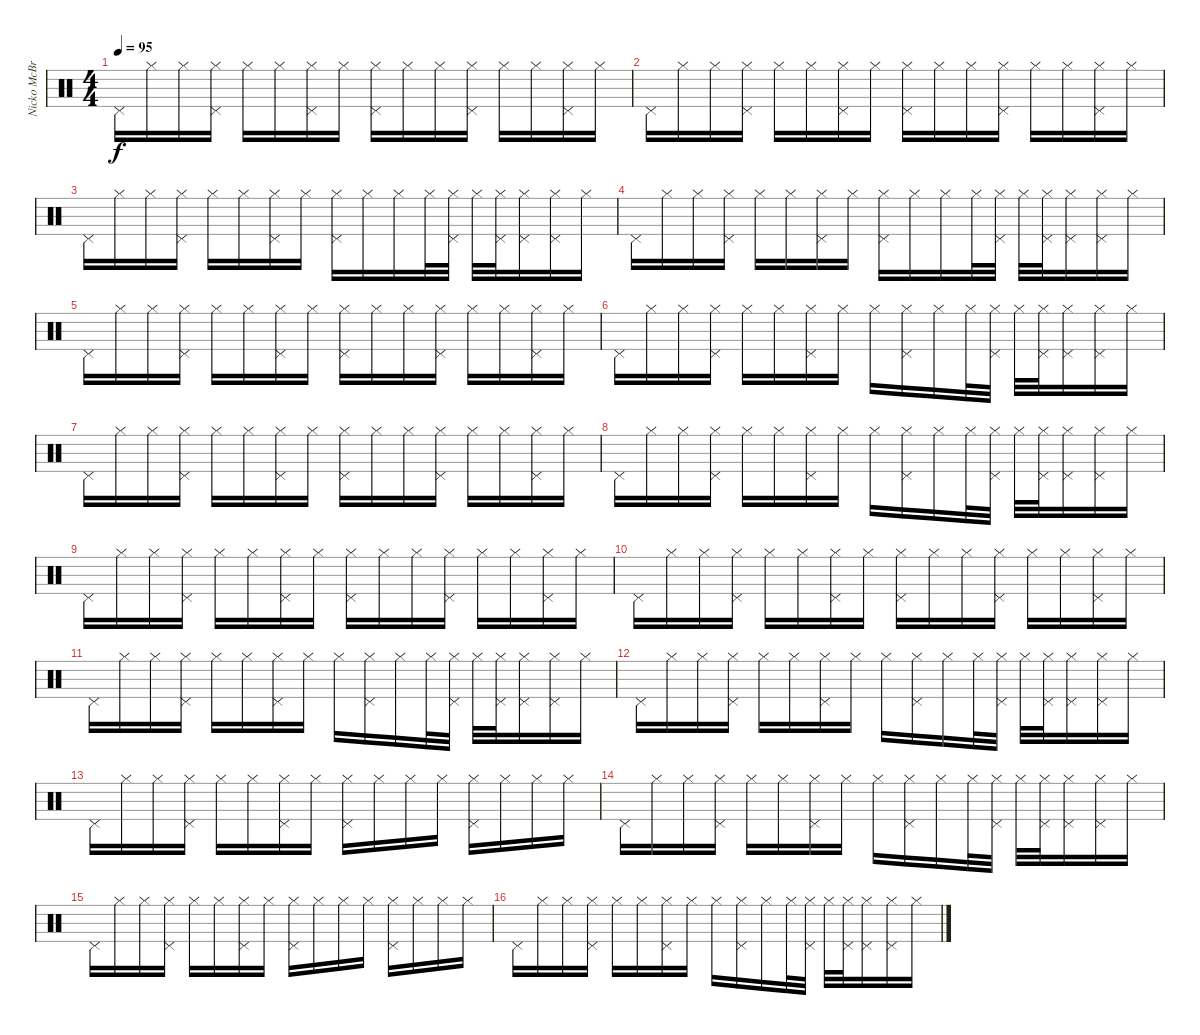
\track ("Nicko McBrain" "Nicko McBr") {instrument percussion}
\staff {score}
\articulation defaults
\ts (4 4)
\tempo 95
\clef neutral
\ks c "Pedal Hi-Hat (hit)".16{dy f} "Hi-Hat (closed)".16 "Hi-Hat (closed)".16
("Hi-Hat (closed)" "Pedal Hi-Hat (hit)").16 "Hi-Hat (closed)".16 "Hi-Hat (closed)".16 ("Hi-Hat (closed)" "Pedal Hi-Hat (hit)").16 "Hi-Hat (closed)".16 ("Hi-Hat (closed)" "Pedal Hi-Hat (hit)").16 "Hi-Hat (closed)".16 "Hi-Hat (closed)".16 ("Hi-Hat (closed)" "Pedal Hi-Hat (hit)").16 "Hi-Hat (closed)".16 "Hi-Hat (closed)".16 ("Hi-Hat (closed)" "Pedal Hi-Hat (hit)").16 "Hi-Hat (closed)".16 |
"Pedal Hi-Hat (hit)".16 "Hi-Hat (closed)".16 "Hi-Hat (closed)".16 ("Hi-Hat (closed)" "Pedal Hi-Hat (hit)").16 "Hi-Hat (closed)".16 "Hi-Hat (closed)".16 ("Hi-Hat (closed)" "Pedal Hi-Hat (hit)").16 "Hi-Hat (closed)".16 ("Hi-Hat (closed)" "Pedal Hi-Hat (hit)").16 "Hi-Hat (closed)".16 "Hi-Hat (closed)".16 ("Hi-Hat (closed)" "Pedal Hi-Hat (hit)").16 "Hi-Hat (closed)".16 "Hi-Hat (closed)".16 ("Hi-Hat (closed)" "Pedal Hi-Hat (hit)").16 "Hi-Hat (closed)".16 |
"Pedal Hi-Hat (hit)".16 "Hi-Hat (closed)".16 "Hi-Hat (closed)".16 ("Hi-Hat (closed)" "Pedal Hi-Hat (hit)").16 "Hi-Hat (closed)".16 "Hi-Hat (closed)".16 ("Hi-Hat (closed)" "Pedal Hi-Hat (hit)").16 "Hi-Hat (closed)".16 ("Hi-Hat (closed)" "Pedal Hi-Hat (hit)").16 "Hi-Hat (closed)".16 "Hi-Hat (closed)".16 "Hi-Hat (closed)".32 ("Hi-Hat (closed)" "Pedal Hi-Hat (hit)").32 "Hi-Hat (closed)".32 ("Hi-Hat (closed)" "Pedal Hi-Hat (hit)").32 ("Hi-Hat (closed)" "Pedal Hi-Hat (hit)").16 ("Hi-Hat (closed)" "Pedal Hi-Hat (hit)").16 "Hi-Hat (closed)".16 |
"Pedal Hi-Hat (hit)".16 "Hi-Hat (closed)".16 "Hi-Hat (closed)".16 ("Hi-Hat (closed)" "Pedal Hi-Hat (hit)").16 "Hi-Hat (closed)".16 "Hi-Hat (closed)".16 ("Hi-Hat (closed)" "Pedal Hi-Hat (hit)").16 "Hi-Hat (closed)".16 ("Hi-Hat (closed)" "Pedal Hi-Hat (hit)").16 "Hi-Hat (closed)".16 "Hi-Hat (closed)".16 "Hi-Hat (closed)".32 ("Hi-Hat (closed)" "Pedal Hi-Hat (hit)").32 "Hi-Hat (closed)".32 ("Hi-Hat (closed)" "Pedal Hi-Hat (hit)").32 ("Hi-Hat (closed)" "Pedal Hi-Hat (hit)").16 ("Hi-Hat (closed)" "Pedal Hi-Hat (hit)").16 "Hi-Hat (closed)".16 |
"Pedal Hi-Hat (hit)".16 "Hi-Hat (closed)".16 "Hi-Hat (closed)".16 ("Hi-Hat (closed)" "Pedal Hi-Hat (hit)").16 "Hi-Hat (closed)".16 "Hi-Hat (closed)".16 ("Hi-Hat (closed)" "Pedal Hi-Hat (hit)").16 "Hi-Hat (closed)".16 ("Hi-Hat (closed)" "Pedal Hi-Hat (hit)").16 "Hi-Hat (closed)".16 "Hi-Hat (closed)".16 ("Hi-Hat (closed)" "Pedal Hi-Hat (hit)").16 "Hi-Hat (closed)".16 "Hi-Hat (closed)".16 ("Hi-Hat (closed)" "Pedal Hi-Hat (hit)").16 "Hi-Hat (closed)".16 |
"Pedal Hi-Hat (hit)".16 "Hi-Hat (closed)".16 "Hi-Hat (closed)".16 ("Hi-Hat (closed)" "Pedal Hi-Hat (hit)").16 "Hi-Hat (closed)".16 "Hi-Hat (closed)".16 ("Hi-Hat (closed)" "Pedal Hi-Hat (hit)").16 "Hi-Hat (closed)".16 "Hi-Hat (closed)".16 ("Hi-Hat (closed)" "Pedal Hi-Hat (hit)").16 "Hi-Hat (closed)".16 "Hi-Hat (closed)".32 ("Hi-Hat (closed)" "Pedal Hi-Hat (hit)").32 "Hi-Hat (closed)".32 ("Hi-Hat (closed)" "Pedal Hi-Hat (hit)").32 ("Hi-Hat (closed)" "Pedal Hi-Hat (hit)").16 ("Hi-Hat (closed)" "Pedal Hi-Hat (hit)").16 "Hi-Hat (closed)".16 |
"Pedal Hi-Hat (hit)".16 "Hi-Hat (closed)".16 "Hi-Hat (closed)".16 ("Hi-Hat (closed)" "Pedal Hi-Hat (hit)").16 "Hi-Hat (closed)".16 "Hi-Hat (closed)".16 ("Hi-Hat (closed)" "Pedal Hi-Hat (hit)").16 "Hi-Hat (closed)".16 ("Hi-Hat (closed)" "Pedal Hi-Hat (hit)").16 "Hi-Hat (closed)".16 "Hi-Hat (closed)".16 ("Hi-Hat (closed)" "Pedal Hi-Hat (hit)").16 "Hi-Hat (closed)".16 "Hi-Hat (closed)".16 ("Hi-Hat (closed)" "Pedal Hi-Hat (hit)").16 "Hi-Hat (closed)".16 |
"Pedal Hi-Hat (hit)".16 "Hi-Hat (closed)".16 "Hi-Hat (closed)".16 ("Hi-Hat (closed)" "Pedal Hi-Hat (hit)").16 "Hi-Hat (closed)".16 "Hi-Hat (closed)".16 ("Hi-Hat (closed)" "Pedal Hi-Hat (hit)").16 "Hi-Hat (closed)".16 "Hi-Hat (closed)".16 ("Hi-Hat (closed)" "Pedal Hi-Hat (hit)").16 "Hi-Hat (closed)".16 "Hi-Hat (closed)".32 ("Hi-Hat (closed)" "Pedal Hi-Hat (hit)").32 "Hi-Hat (closed)".32 ("Hi-Hat (closed)" "Pedal Hi-Hat (hit)").32 ("Hi-Hat (closed)" "Pedal Hi-Hat (hit)").16 ("Hi-Hat (closed)" "Pedal Hi-Hat (hit)").16 "Hi-Hat (closed)".16 |
"Pedal Hi-Hat (hit)".16 "Hi-Hat (closed)".16 "Hi-Hat (closed)".16 ("Hi-Hat (closed)" "Pedal Hi-Hat (hit)").16 "Hi-Hat (closed)".16 "Hi-Hat (closed)".16 ("Hi-Hat (closed)" "Pedal Hi-Hat (hit)").16 "Hi-Hat (closed)".16 ("Hi-Hat (closed)" "Pedal Hi-Hat (hit)").16 "Hi-Hat (closed)".16 "Hi-Hat (closed)".16 ("Hi-Hat (closed)" "Pedal Hi-Hat (hit)").16 "Hi-Hat (closed)".16 "Hi-Hat (closed)".16 ("Hi-Hat (closed)" "Pedal Hi-Hat (hit)").16 "Hi-Hat (closed)".16 |
"Pedal Hi-Hat (hit)".16 "Hi-Hat (closed)".16 "Hi-Hat (closed)".16 ("Hi-Hat (closed)" "Pedal Hi-Hat (hit)").16 "Hi-Hat (closed)".16 "Hi-Hat (closed)".16 ("Hi-Hat (closed)" "Pedal Hi-Hat (hit)").16 "Hi-Hat (closed)".16 ("Hi-Hat (closed)" "Pedal Hi-Hat (hit)").16 "Hi-Hat (closed)".16 "Hi-Hat (closed)".16 ("Hi-Hat (closed)" "Pedal Hi-Hat (hit)").16 "Hi-Hat (closed)".16 "Hi-Hat (closed)".16 ("Hi-Hat (closed)" "Pedal Hi-Hat (hit)").16 "Hi-Hat (closed)".16 |
"Pedal Hi-Hat (hit)".16 "Hi-Hat (closed)".16 "Hi-Hat (closed)".16 ("Hi-Hat (closed)" "Pedal Hi-Hat (hit)").16 "Hi-Hat (closed)".16 "Hi-Hat (closed)".16 ("Hi-Hat (closed)" "Pedal Hi-Hat (hit)").16 "Hi-Hat (closed)".16 "Hi-Hat (closed)".16 ("Hi-Hat (closed)" "Pedal Hi-Hat (hit)").16 "Hi-Hat (closed)".16 "Hi-Hat (closed)".32 ("Hi-Hat (closed)" "Pedal Hi-Hat (hit)").32 "Hi-Hat (closed)".32 ("Hi-Hat (closed)" "Pedal Hi-Hat (hit)").32 ("Hi-Hat (closed)" "Pedal Hi-Hat (hit)").16 ("Hi-Hat (closed)" "Pedal Hi-Hat (hit)").16 "Hi-Hat (closed)".16 |
"Pedal Hi-Hat (hit)".16 "Hi-Hat (closed)".16 "Hi-Hat (closed)".16 ("Hi-Hat (closed)" "Pedal Hi-Hat (hit)").16 "Hi-Hat (closed)".16 "Hi-Hat (closed)".16 ("Hi-Hat (closed)" "Pedal Hi-Hat (hit)").16 "Hi-Hat (closed)".16 "Hi-Hat (closed)".16 ("Hi-Hat (closed)" "Pedal Hi-Hat (hit)").16 "Hi-Hat (closed)".16 "Hi-Hat (closed)".32 ("Hi-Hat (closed)" "Pedal Hi-Hat (hit)").32 "Hi-Hat (closed)".32 ("Hi-Hat (closed)" "Pedal Hi-Hat (hit)").32 ("Hi-Hat (closed)" "Pedal Hi-Hat (hit)").16 ("Hi-Hat (closed)" "Pedal Hi-Hat (hit)").16 "Hi-Hat (closed)".16 |
"Pedal Hi-Hat (hit)".16 "Hi-Hat (closed)".16 "Hi-Hat (closed)".16 ("Hi-Hat (closed)" "Pedal Hi-Hat (hit)").16 "Hi-Hat (closed)".16 "Hi-Hat (closed)".16 ("Hi-Hat (closed)" "Pedal Hi-Hat (hit)").16 "Hi-Hat (closed)".16 ("Hi-Hat (closed)" "Pedal Hi-Hat (hit)").16 "Hi-Hat (closed)".16 "Hi-Hat (closed)".16 "Hi-Hat (closed)".16 ("Hi-Hat (closed)" "Pedal Hi-Hat (hit)").16 "Hi-Hat (closed)".16 "Hi-Hat (closed)".16 "Hi-Hat (closed)".16 |
"Pedal Hi-Hat (hit)".16 "Hi-Hat (closed)".16 "Hi-Hat (closed)".16 ("Hi-Hat (closed)" "Pedal Hi-Hat (hit)").16 "Hi-Hat (closed)".16 "Hi-Hat (closed)".16 ("Hi-Hat (closed)" "Pedal Hi-Hat (hit)").16 "Hi-Hat (closed)".16 "Hi-Hat (closed)".16 ("Hi-Hat (closed)" "Pedal Hi-Hat (hit)").16 "Hi-Hat (closed)".16 "Hi-Hat (closed)".32 ("Hi-Hat (closed)" "Pedal Hi-Hat (hit)").32 "Hi-Hat (closed)".32 ("Hi-Hat (closed)" "Pedal Hi-Hat (hit)").32 ("Hi-Hat (closed)" "Pedal Hi-Hat (hit)").16 ("Hi-Hat (closed)" "Pedal Hi-Hat (hit)").16 "Hi-Hat (closed)".16 |
"Pedal Hi-Hat (hit)".16 "Hi-Hat (closed)".16 "Hi-Hat (closed)".16 ("Hi-Hat (closed)" "Pedal Hi-Hat (hit)").16 "Hi-Hat (closed)".16 "Hi-Hat (closed)".16 ("Hi-Hat (closed)" "Pedal Hi-Hat (hit)").16 "Hi-Hat (closed)".16 ("Hi-Hat (closed)" "Pedal Hi-Hat (hit)").16 "Hi-Hat (closed)".16 "Hi-Hat (closed)".16 "Hi-Hat (closed)".16 ("Hi-Hat (closed)" "Pedal Hi-Hat (hit)").16 "Hi-Hat (closed)".16 "Hi-Hat (closed)".16 "Hi-Hat (closed)".16 |
"Pedal Hi-Hat (hit)".16 "Hi-Hat (closed)".16 "Hi-Hat (closed)".16 ("Hi-Hat (closed)" "Pedal Hi-Hat (hit)").16 "Hi-Hat (closed)".16 "Hi-Hat (closed)".16 ("Hi-Hat (closed)" "Pedal Hi-Hat (hit)").16 "Hi-Hat (closed)".16 "Hi-Hat (closed)".16 ("Hi-Hat (closed)" "Pedal Hi-Hat (hit)").16 "Hi-Hat (closed)".16 "Hi-Hat (closed)".32 ("Hi-Hat (closed)" "Pedal Hi-Hat (hit)").32 "Hi-Hat (closed)".32 ("Hi-Hat (closed)" "Pedal Hi-Hat (hit)").32 ("Hi-Hat (closed)" "Pedal Hi-Hat (hit)").16 ("Hi-Hat (closed)" "Pedal Hi-Hat (hit)").16 "Hi-Hat (closed)".16
